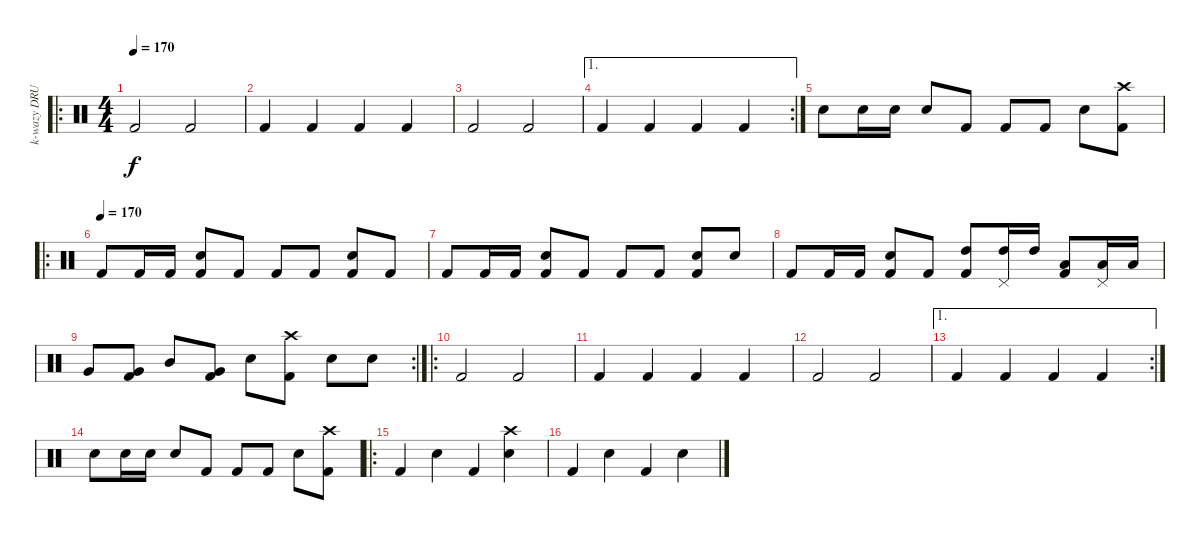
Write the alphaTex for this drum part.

\track ("k-wazy DRUMZ" "k-wazy DRU") {instrument percussion}
\staff {score}
\articulation defaults
\ro
\ts (4 4)
\tempo 170
\clef neutral
\ks c "Kick (hit) 2".2{dy f} "Kick (hit) 2".2
|
"Kick (hit) 2".4 "Kick (hit) 2".4 "Kick (hit) 2".4 "Kick (hit) 2".4 |
"Kick (hit) 2".2 "Kick (hit) 2".2 |
\ae 1
\rc 2 "Kick (hit) 2".4 "Kick (hit) 2".4 "Kick (hit) 2".4 "Kick (hit) 2".4
|
"Electric Snare (hit)".8 "Electric Snare (hit)".16 "Electric Snare (hit)".16 "Electric Snare (hit)".8 "Kick (hit) 2".8 "Kick (hit) 2".8 "Kick (hit) 2".8 "Electric Snare (hit)".8 ("Crash high (hit)" "Kick (hit) 2").8 |
\ro
\tempo (170)
"Kick (hit) 2".8 "Kick (hit) 2".16 "Kick (hit) 2".16 ("Electric Snare (hit)" "Kick (hit) 2").8 "Kick (hit) 2".8 "Kick (hit) 2".8 "Kick (hit) 2".8 ("Electric Snare (hit)" "Kick (hit) 2").8 "Kick (hit) 2".8 |
"Kick (hit) 2".8 "Kick (hit) 2".16 "Kick (hit) 2".16 ("Electric Snare (hit)" "Kick (hit) 2").8 "Kick (hit) 2".8 "Kick (hit) 2".8 "Kick (hit) 2".8 ("Electric Snare (hit)" "Kick (hit) 2").8 "Electric Snare (hit)".8 |
"Kick (hit) 2".8 "Kick (hit) 2".16 "Kick (hit) 2".16 ("Electric Snare (hit)" "Kick (hit) 2").8 "Kick (hit) 2".8 ("High Tom (hit)" "Kick (hit) 2").8 ("High Tom (hit)" "Pedal Hi-Hat (hit)").16 "High Tom (hit)".16 ("Low Tom (hit)" "Kick (hit) 2").8 ("Low Tom (hit)" "Pedal Hi-Hat (hit)").16 "Low Tom (hit)".16 |
\rc 2 "Very Low Tom (hit)".8
("Very Low Tom (hit)" "Kick (hit) 2").8 "Mid Tom (hit)".8 ("Very Low Tom (hit)" "Kick (hit) 2").8 "Electric Snare (hit)".8 ("Crash high (hit)" "Kick (hit) 2").8 "Electric Snare (hit)".8 "Electric Snare (hit)".8 |
\ro "Kick (hit) 2".2 "Kick (hit) 2".2
|
"Kick (hit) 2".4 "Kick (hit) 2".4 "Kick (hit) 2".4 "Kick (hit) 2".4 |
"Kick (hit) 2".2 "Kick (hit) 2".2 |
\ae 1
\rc 2 "Kick (hit) 2".4 "Kick (hit) 2".4 "Kick (hit) 2".4 "Kick (hit) 2".4
|
"Electric Snare (hit)".8 "Electric Snare (hit)".16 "Electric Snare (hit)".16 "Electric Snare (hit)".8 "Kick (hit) 2".8 "Kick (hit) 2".8 "Kick (hit) 2".8 "Electric Snare (hit)".8 ("Crash high (hit)" "Kick (hit) 2").8 |
\ro "Kick (hit) 2".4 "Electric Snare (hit)".4 "Kick (hit) 2".4
("Crash high (hit)" "Electric Snare (hit)").4 |
"Kick (hit) 2".4 "Electric Snare (hit)".4 "Kick (hit) 2".4 "Electric Snare (hit)".4
